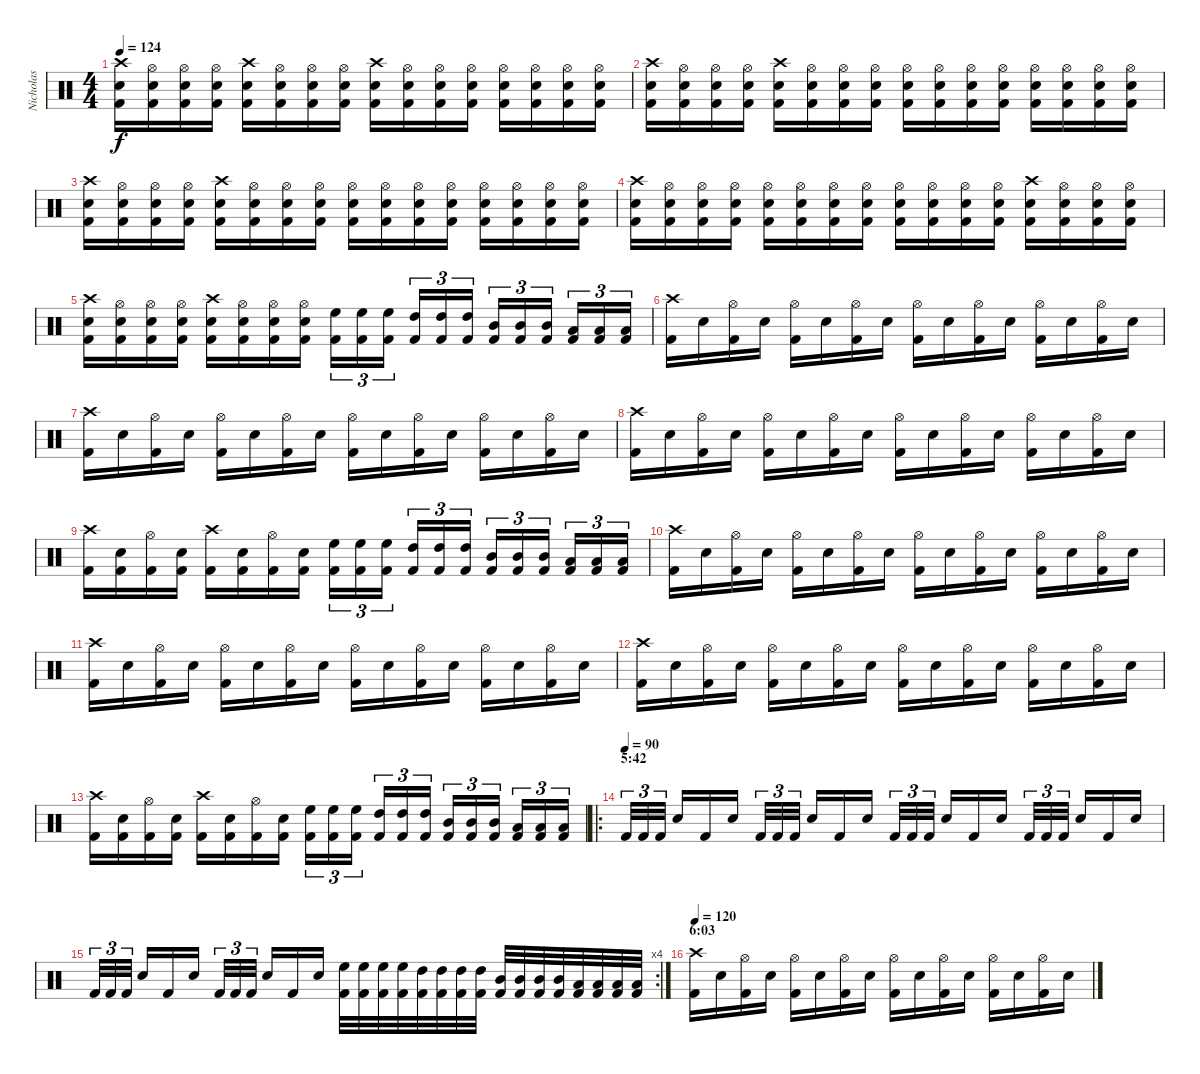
\track ("Nicholas" "Nicholas") {instrument percussion}
\staff {score}
\articulation defaults
\ts (4 4)
\tempo 124
\clef neutral
\ks c
("Kick (hit) 2" "Snare (hit) 2" "Crash high (hit)").16{dy f} ("Kick (hit) 2" "Snare (hit) 2" "Hi-Hat (open)").16 ("Kick (hit) 2" "Snare (hit) 2" "Hi-Hat (open)").16 ("Kick (hit) 2" "Snare (hit) 2" "Hi-Hat (open)").16 ("Kick (hit) 2" "Snare (hit) 2" "Crash high (hit)").16 ("Kick (hit) 2" "Snare (hit) 2" "Hi-Hat (open)").16 ("Kick (hit) 2" "Snare (hit) 2" "Hi-Hat (open)").16 ("Kick (hit) 2" "Snare (hit) 2" "Hi-Hat (open)").16 ("Kick (hit) 2" "Snare (hit) 2" "Crash high (hit)").16 ("Kick (hit) 2" "Snare (hit) 2" "Hi-Hat (open)").16 ("Kick (hit) 2" "Snare (hit) 2" "Hi-Hat (open)").16 ("Kick (hit) 2" "Snare (hit) 2" "Hi-Hat (open)").16 ("Kick (hit) 2" "Snare (hit) 2" "Hi-Hat (open)").16 ("Kick (hit) 2" "Snare (hit) 2" "Hi-Hat (open)").16 ("Kick (hit) 2" "Snare (hit) 2" "Hi-Hat (open)").16 ("Kick (hit) 2" "Snare (hit) 2" "Hi-Hat (open)").16 |
("Kick (hit) 2" "Snare (hit) 2" "Crash high (hit)").16 ("Kick (hit) 2" "Snare (hit) 2" "Hi-Hat (open)").16 ("Kick (hit) 2" "Snare (hit) 2" "Hi-Hat (open)").16 ("Kick (hit) 2" "Snare (hit) 2" "Hi-Hat (open)").16 ("Kick (hit) 2" "Snare (hit) 2" "Crash high (hit)").16 ("Kick (hit) 2" "Snare (hit) 2" "Hi-Hat (open)").16 ("Kick (hit) 2" "Snare (hit) 2" "Hi-Hat (open)").16 ("Kick (hit) 2" "Snare (hit) 2" "Hi-Hat (open)").16 ("Kick (hit) 2" "Snare (hit) 2" "Hi-Hat (open)").16 ("Kick (hit) 2" "Snare (hit) 2" "Hi-Hat (open)").16 ("Kick (hit) 2" "Snare (hit) 2" "Hi-Hat (open)").16 ("Kick (hit) 2" "Snare (hit) 2" "Hi-Hat (open)").16 ("Kick (hit) 2" "Snare (hit) 2" "Hi-Hat (open)").16 ("Kick (hit) 2" "Snare (hit) 2" "Hi-Hat (open)").16 ("Kick (hit) 2" "Snare (hit) 2" "Hi-Hat (open)").16 ("Kick (hit) 2" "Snare (hit) 2" "Hi-Hat (open)").16 |
("Kick (hit) 2" "Snare (hit) 2" "Crash high (hit)").16 ("Kick (hit) 2" "Snare (hit) 2" "Hi-Hat (open)").16 ("Kick (hit) 2" "Snare (hit) 2" "Hi-Hat (open)").16 ("Kick (hit) 2" "Snare (hit) 2" "Hi-Hat (open)").16 ("Kick (hit) 2" "Snare (hit) 2" "Crash high (hit)").16 ("Kick (hit) 2" "Snare (hit) 2" "Hi-Hat (open)").16 ("Kick (hit) 2" "Snare (hit) 2" "Hi-Hat (open)").16 ("Kick (hit) 2" "Snare (hit) 2" "Hi-Hat (open)").16 ("Kick (hit) 2" "Snare (hit) 2" "Hi-Hat (open)").16 ("Kick (hit) 2" "Snare (hit) 2" "Hi-Hat (open)").16 ("Kick (hit) 2" "Snare (hit) 2" "Hi-Hat (open)").16 ("Kick (hit) 2" "Snare (hit) 2" "Hi-Hat (open)").16 ("Kick (hit) 2" "Snare (hit) 2" "Hi-Hat (open)").16 ("Kick (hit) 2" "Snare (hit) 2" "Hi-Hat (open)").16 ("Kick (hit) 2" "Snare (hit) 2" "Hi-Hat (open)").16 ("Kick (hit) 2" "Snare (hit) 2" "Hi-Hat (open)").16 |
("Kick (hit) 2" "Snare (hit) 2" "Crash high (hit)").16 ("Kick (hit) 2" "Snare (hit) 2" "Hi-Hat (open)").16 ("Kick (hit) 2" "Snare (hit) 2" "Hi-Hat (open)").16 ("Kick (hit) 2" "Snare (hit) 2" "Hi-Hat (open)").16 ("Kick (hit) 2" "Snare (hit) 2" "Hi-Hat (open)").16 ("Kick (hit) 2" "Snare (hit) 2" "Hi-Hat (open)").16 ("Kick (hit) 2" "Snare (hit) 2" "Hi-Hat (open)").16 ("Kick (hit) 2" "Snare (hit) 2" "Hi-Hat (open)").16 ("Kick (hit) 2" "Snare (hit) 2" "Hi-Hat (open)").16 ("Kick (hit) 2" "Snare (hit) 2" "Hi-Hat (open)").16 ("Kick (hit) 2" "Snare (hit) 2" "Hi-Hat (open)").16 ("Kick (hit) 2" "Snare (hit) 2" "Hi-Hat (open)").16 ("Kick (hit) 2" "Snare (hit) 2" "Crash high (hit)").16 ("Kick (hit) 2" "Snare (hit) 2" "Hi-Hat (open)").16 ("Kick (hit) 2" "Snare (hit) 2" "Hi-Hat (open)").16 ("Kick (hit) 2" "Snare (hit) 2" "Hi-Hat (open)").16 |
("Kick (hit) 2" "Snare (hit) 2" "Crash high (hit)").16 ("Kick (hit) 2" "Snare (hit) 2" "Hi-Hat (open)").16 ("Kick (hit) 2" "Snare (hit) 2" "Hi-Hat (open)").16 ("Kick (hit) 2" "Snare (hit) 2" "Hi-Hat (open)").16 ("Kick (hit) 2" "Snare (hit) 2" "Crash high (hit)").16 ("Kick (hit) 2" "Snare (hit) 2" "Hi-Hat (open)").16 ("Kick (hit) 2" "Snare (hit) 2" "Hi-Hat (open)").16 ("Kick (hit) 2" "Snare (hit) 2" "Hi-Hat (open)").16 ("Kick (hit) 2" "High Floor Tom (hit)").16{tu (3 2)} ("Kick (hit) 2" "High Floor Tom (hit)").16{tu (3 2)} ("Kick (hit) 2" "High Floor Tom (hit)").16{tu (3 2)} ("Kick (hit) 2" "High Tom (hit)").16{tu (3 2)} ("Kick (hit) 2" "High Tom (hit)").16{tu (3 2)} ("Kick (hit) 2" "High Tom (hit)").16{tu (3 2)} ("Kick (hit) 2" "Mid Tom (hit)").16{tu (3 2)} ("Kick (hit) 2" "Mid Tom (hit)").16{tu (3 2)} ("Kick (hit) 2" "Mid Tom (hit)").16{tu (3 2)} ("Kick (hit) 2" "Low Tom (hit)").16{tu (3 2)} ("Kick (hit) 2" "Low Tom (hit)").16{tu (3 2)} ("Kick (hit) 2" "Low Tom (hit)").16{tu (3 2)} |
("Kick (hit) 2" "Crash high (hit)").16 "Snare (hit) 2".16 ("Kick (hit) 2" "Hi-Hat (open)").16 "Snare (hit) 2".16 ("Kick (hit) 2" "Hi-Hat (open)").16 "Snare (hit) 2".16 ("Kick (hit) 2" "Hi-Hat (open)").16 "Snare (hit) 2".16 ("Kick (hit) 2" "Hi-Hat (open)").16 "Snare (hit) 2".16 ("Kick (hit) 2" "Hi-Hat (open)").16 "Snare (hit) 2".16 ("Kick (hit) 2" "Hi-Hat (open)").16 "Snare (hit) 2".16 ("Kick (hit) 2" "Hi-Hat (open)").16 "Snare (hit) 2".16 |
("Kick (hit) 2" "Crash high (hit)").16 "Snare (hit) 2".16 ("Kick (hit) 2" "Hi-Hat (open)").16 "Snare (hit) 2".16 ("Kick (hit) 2" "Hi-Hat (open)").16 "Snare (hit) 2".16 ("Kick (hit) 2" "Hi-Hat (open)").16 "Snare (hit) 2".16 ("Kick (hit) 2" "Hi-Hat (open)").16 "Snare (hit) 2".16 ("Kick (hit) 2" "Hi-Hat (open)").16 "Snare (hit) 2".16 ("Kick (hit) 2" "Hi-Hat (open)").16 "Snare (hit) 2".16 ("Kick (hit) 2" "Hi-Hat (open)").16 "Snare (hit) 2".16 |
("Kick (hit) 2" "Crash high (hit)").16 "Snare (hit) 2".16 ("Kick (hit) 2" "Hi-Hat (open)").16 "Snare (hit) 2".16 ("Kick (hit) 2" "Hi-Hat (open)").16 "Snare (hit) 2".16 ("Kick (hit) 2" "Hi-Hat (open)").16 "Snare (hit) 2".16 ("Kick (hit) 2" "Hi-Hat (open)").16 "Snare (hit) 2".16 ("Kick (hit) 2" "Hi-Hat (open)").16 "Snare (hit) 2".16 ("Kick (hit) 2" "Hi-Hat (open)").16 "Snare (hit) 2".16 ("Kick (hit) 2" "Hi-Hat (open)").16 "Snare (hit) 2".16 |
("Kick (hit) 2" "Crash high (hit)").16 ("Kick (hit) 2" "Snare (hit) 2").16 ("Kick (hit) 2" "Hi-Hat (open)").16 ("Kick (hit) 2" "Snare (hit) 2").16 ("Kick (hit) 2" "Crash high (hit)").16 ("Kick (hit) 2" "Snare (hit) 2").16 ("Kick (hit) 2" "Hi-Hat (open)").16 ("Kick (hit) 2" "Snare (hit) 2").16 ("Kick (hit) 2" "High Floor Tom (hit)").16{tu (3 2)} ("Kick (hit) 2" "High Floor Tom (hit)").16{tu (3 2)} ("Kick (hit) 2" "High Floor Tom (hit)").16{tu (3 2)} ("Kick (hit) 2" "High Tom (hit)").16{tu (3 2)} ("Kick (hit) 2" "High Tom (hit)").16{tu (3 2)} ("Kick (hit) 2" "High Tom (hit)").16{tu (3 2)} ("Kick (hit) 2" "Mid Tom (hit)").16{tu (3 2)} ("Kick (hit) 2" "Mid Tom (hit)").16{tu (3 2)} ("Kick (hit) 2" "Mid Tom (hit)").16{tu (3 2)} ("Kick (hit) 2" "Low Tom (hit)").16{tu (3 2)} ("Kick (hit) 2" "Low Tom (hit)").16{tu (3 2)} ("Kick (hit) 2" "Low Tom (hit)").16{tu (3 2)} |
("Kick (hit) 2" "Crash high (hit)").16 "Snare (hit) 2".16 ("Kick (hit) 2" "Hi-Hat (open)").16 "Snare (hit) 2".16 ("Kick (hit) 2" "Hi-Hat (open)").16 "Snare (hit) 2".16 ("Kick (hit) 2" "Hi-Hat (open)").16 "Snare (hit) 2".16 ("Kick (hit) 2" "Hi-Hat (open)").16 "Snare (hit) 2".16 ("Kick (hit) 2" "Hi-Hat (open)").16 "Snare (hit) 2".16 ("Kick (hit) 2" "Hi-Hat (open)").16 "Snare (hit) 2".16 ("Kick (hit) 2" "Hi-Hat (open)").16 "Snare (hit) 2".16 |
("Kick (hit) 2" "Crash high (hit)").16 "Snare (hit) 2".16 ("Kick (hit) 2" "Hi-Hat (open)").16 "Snare (hit) 2".16 ("Kick (hit) 2" "Hi-Hat (open)").16 "Snare (hit) 2".16 ("Kick (hit) 2" "Hi-Hat (open)").16 "Snare (hit) 2".16 ("Kick (hit) 2" "Hi-Hat (open)").16 "Snare (hit) 2".16 ("Kick (hit) 2" "Hi-Hat (open)").16 "Snare (hit) 2".16 ("Kick (hit) 2" "Hi-Hat (open)").16 "Snare (hit) 2".16 ("Kick (hit) 2" "Hi-Hat (open)").16 "Snare (hit) 2".16 |
("Kick (hit) 2" "Crash high (hit)").16 "Snare (hit) 2".16 ("Kick (hit) 2" "Hi-Hat (open)").16 "Snare (hit) 2".16 ("Kick (hit) 2" "Hi-Hat (open)").16 "Snare (hit) 2".16 ("Kick (hit) 2" "Hi-Hat (open)").16 "Snare (hit) 2".16 ("Kick (hit) 2" "Hi-Hat (open)").16 "Snare (hit) 2".16 ("Kick (hit) 2" "Hi-Hat (open)").16 "Snare (hit) 2".16 ("Kick (hit) 2" "Hi-Hat (open)").16 "Snare (hit) 2".16 ("Kick (hit) 2" "Hi-Hat (open)").16 "Snare (hit) 2".16 |
("Kick (hit) 2" "Crash high (hit)").16 ("Kick (hit) 2" "Snare (hit) 2").16 ("Kick (hit) 2" "Hi-Hat (open)").16 ("Kick (hit) 2" "Snare (hit) 2").16 ("Kick (hit) 2" "Crash high (hit)").16 ("Kick (hit) 2" "Snare (hit) 2").16 ("Kick (hit) 2" "Hi-Hat (open)").16 ("Kick (hit) 2" "Snare (hit) 2").16 ("Kick (hit) 2" "High Floor Tom (hit)").16{tu (3 2)} ("Kick (hit) 2" "High Floor Tom (hit)").16{tu (3 2)} ("Kick (hit) 2" "High Floor Tom (hit)").16{tu (3 2)} ("Kick (hit) 2" "High Tom (hit)").16{tu (3 2)} ("Kick (hit) 2" "High Tom (hit)").16{tu (3 2)} ("Kick (hit) 2" "High Tom (hit)").16{tu (3 2)} ("Kick (hit) 2" "Mid Tom (hit)").16{tu (3 2)} ("Kick (hit) 2" "Mid Tom (hit)").16{tu (3 2)} ("Kick (hit) 2" "Mid Tom (hit)").16{tu (3 2)} ("Kick (hit) 2" "Low Tom (hit)").16{tu (3 2)} ("Kick (hit) 2" "Low Tom (hit)").16{tu (3 2)} ("Kick (hit) 2" "Low Tom (hit)").16{tu (3 2)} |
\ro
\section ("" "5:42")
\tempo (90)
"Kick (hit) 2".32{tu (3 2)} "Kick (hit) 2".32{tu (3 2)} "Kick (hit) 2".32{tu (3 2)} "Snare (hit) 2".16 "Kick (hit) 2".16 "Snare (hit) 2".16 "Kick (hit) 2".32{tu (3 2)} "Kick (hit) 2".32{tu (3 2)} "Kick (hit) 2".32{tu (3 2)} "Snare (hit) 2".16 "Kick (hit) 2".16 "Snare (hit) 2".16 "Kick (hit) 2".32{tu (3 2)} "Kick (hit) 2".32{tu (3 2)} "Kick (hit) 2".32{tu (3 2)} "Snare (hit) 2".16 "Kick (hit) 2".16 "Snare (hit) 2".16 "Kick (hit) 2".32{tu (3 2)} "Kick (hit) 2".32{tu (3 2)} "Kick (hit) 2".32{tu (3 2)} "Snare (hit) 2".16 "Kick (hit) 2".16 "Snare (hit) 2".16 |
\rc 4 "Kick (hit) 2".32{tu (3 2)} "Kick (hit) 2".32{tu (3 2)} "Kick (hit) 2".32{tu (3 2)} "Snare (hit) 2".16 "Kick (hit) 2".16 "Snare (hit) 2".16 "Kick (hit) 2".32{tu (3 2)} "Kick (hit) 2".32{tu (3 2)} "Kick (hit) 2".32{tu (3 2)} "Snare (hit) 2".16 "Kick (hit) 2".16 "Snare (hit) 2".16
("Kick (hit) 2" "High Floor Tom (hit)").32 ("Kick (hit) 2" "High Floor Tom (hit)").32 ("Kick (hit) 2" "High Floor Tom (hit)").32 ("Kick (hit) 2" "High Floor Tom (hit)").32 ("Kick (hit) 2" "High Tom (hit)").32 ("Kick (hit) 2" "High Tom (hit)").32 ("Kick (hit) 2" "High Tom (hit)").32 ("Kick (hit) 2" "High Tom (hit)").32 ("Kick (hit) 2" "Mid Tom (hit)").32 ("Kick (hit) 2" "Mid Tom (hit)").32 ("Kick (hit) 2" "Mid Tom (hit)").32 ("Kick (hit) 2" "Mid Tom (hit)").32 ("Kick (hit) 2" "Low Tom (hit)").32 ("Kick (hit) 2" "Low Tom (hit)").32 ("Kick (hit) 2" "Low Tom (hit)").32 ("Kick (hit) 2" "Low Tom (hit)").32 |
\section ("" "6:03")
\tempo 120
("Kick (hit) 2" "Crash high (hit)").16 "Snare (hit) 2".16 ("Kick (hit) 2" "Hi-Hat (open)").16 "Snare (hit) 2".16 ("Kick (hit) 2" "Hi-Hat (open)").16 "Snare (hit) 2".16 ("Kick (hit) 2" "Hi-Hat (open)").16 "Snare (hit) 2".16 ("Kick (hit) 2" "Hi-Hat (open)").16 "Snare (hit) 2".16 ("Kick (hit) 2" "Hi-Hat (open)").16 "Snare (hit) 2".16 ("Kick (hit) 2" "Hi-Hat (open)").16 "Snare (hit) 2".16 ("Kick (hit) 2" "Hi-Hat (open)").16 "Snare (hit) 2".16
